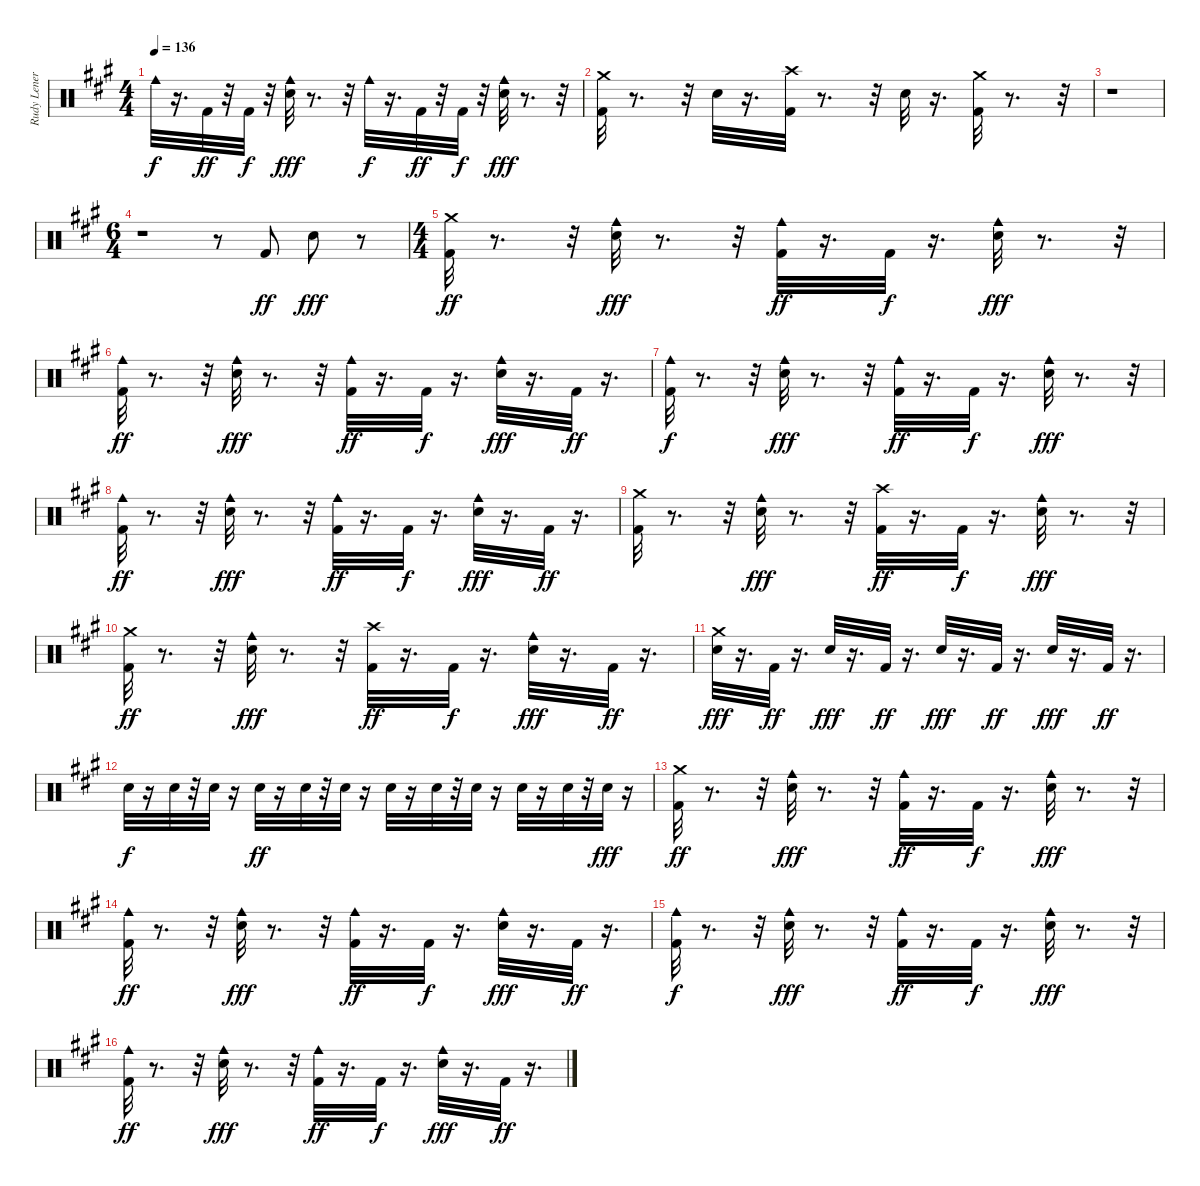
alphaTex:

\track ("Rudy Leners" "Rudy Lener") {instrument percussion}
\staff {score}
\articulation defaults
\ts (4 4)
\tempo 136
\clef neutral
\ks a "Cowbell medium (hit)".32{dy f}
r.16{d} "Kick (hit) 2".32{dy ff} r.32 "Kick (hit) 2".32{dy f} r.32 ("Cowbell medium (hit)" "Snare (hit) 2").32{dy fff} r.8{d} r.32 "Cowbell medium (hit)".32{dy f} r.16{d} "Kick (hit) 2".32{dy ff} r.32 "Kick (hit) 2".32{dy f} r.32 ("Cowbell medium (hit)" "Snare (hit) 2").32{dy fff} r.8{d} r.32 |
("Kick (hit) 2" "Crash medium (hit)").32 r.8{d} r.32 "Snare (hit) 2".32 r.16{d} ("Kick (hit) 2" "Crash high (hit)").32 r.8{d} r.32 "Snare (hit) 2".32 r.16{d} ("Kick (hit) 2" "Crash medium (hit)").32 r.8{d} r.32 |
r.1 |
\ts (6 4)
r.1 r.8 "Kick (hit) 2".8{dy ff} "Snare (hit) 2".8{dy fff} r.8 |
\ts (4 4)
("Crash medium (hit)" "Kick (hit) 2").32{dy ff} r.8{d} r.32 ("Snare (hit) 2" "Cowbell medium (hit)").32{dy fff} r.8{d} r.32 ("Kick (hit) 2" "Cowbell medium (hit)").32{dy ff} r.16{d} "Kick (hit) 2".32{dy f} r.16{d} ("Snare (hit) 2" "Cowbell medium (hit)").32{dy fff} r.8{d} r.32 |
("Cowbell medium (hit)" "Kick (hit) 2").32{dy ff} r.8{d} r.32 ("Cowbell medium (hit)" "Snare (hit) 2").32{dy fff} r.8{d} r.32 ("Cowbell medium (hit)" "Kick (hit) 2").32{dy ff} r.16{d} "Kick (hit) 2".32{dy f} r.16{d} ("Cowbell medium (hit)" "Snare (hit) 2").32{dy fff} r.16{d} "Kick (hit) 2".32{dy ff} r.16{d} |
("Kick (hit) 2" "Cowbell medium (hit)").32{dy f} r.8{d} r.32 ("Snare (hit) 2" "Cowbell medium (hit)").32{dy fff} r.8{d} r.32 ("Kick (hit) 2" "Cowbell medium (hit)").32{dy ff} r.16{d} "Kick (hit) 2".32{dy f} r.16{d} ("Snare (hit) 2" "Cowbell medium (hit)").32{dy fff} r.8{d} r.32 |
("Cowbell medium (hit)" "Kick (hit) 2").32{dy ff} r.8{d} r.32 ("Cowbell medium (hit)" "Snare (hit) 2").32{dy fff} r.8{d} r.32 ("Cowbell medium (hit)" "Kick (hit) 2").32{dy ff} r.16{d} "Kick (hit) 2".32{dy f} r.16{d} ("Cowbell medium (hit)" "Snare (hit) 2").32{dy fff} r.16{d} "Kick (hit) 2".32{dy ff} r.16{d} |
("Crash medium (hit)" "Kick (hit) 2").32 r.8{d} r.32 ("Snare (hit) 2" "Cowbell medium (hit)").32{dy fff} r.8{d} r.32 ("Crash high (hit)" "Kick (hit) 2").32{dy ff} r.16{d} "Kick (hit) 2".32{dy f} r.16{d} ("Snare (hit) 2" "Cowbell medium (hit)").32{dy fff} r.8{d} r.32 |
("Crash medium (hit)" "Kick (hit) 2").32{dy ff} r.8{d} r.32 ("Cowbell medium (hit)" "Snare (hit) 2").32{dy fff} r.8{d} r.32 ("Crash high (hit)" "Kick (hit) 2").32{dy ff} r.16{d} "Kick (hit) 2".32{dy f} r.16{d} ("Cowbell medium (hit)" "Snare (hit) 2").32{dy fff} r.16{d} "Kick (hit) 2".32{dy ff} r.16{d} |
("Crash medium (hit)" "Snare (hit) 2").32{dy fff} r.16{d} "Kick (hit) 2".32{dy ff} r.16{d} "Snare (hit) 2".32{dy fff} r.16{d} "Kick (hit) 2".32{dy ff} r.16{d} "Snare (hit) 2".32{dy fff} r.16{d} "Kick (hit) 2".32{dy ff} r.16{d} "Snare (hit) 2".32{dy fff} r.16{d} "Kick (hit) 2".32{dy ff} r.16{d} |
"Snare (hit) 2".32{dy f} r.16 "Snare (hit) 2".32 r.32 "Snare (hit) 2".32 r.16 "Snare (hit) 2".32{dy ff} r.16 "Snare (hit) 2".32 r.32 "Snare (hit) 2".32 r.16 "Snare (hit) 2".32 r.16 "Snare (hit) 2".32 r.32 "Snare (hit) 2".32 r.16 "Snare (hit) 2".32 r.16 "Snare (hit) 2".32 r.32 "Snare (hit) 2".32{dy fff} r.16 |
("Crash medium (hit)" "Kick (hit) 2").32{dy ff} r.8{d} r.32 ("Snare (hit) 2" "Cowbell medium (hit)").32{dy fff} r.8{d} r.32 ("Kick (hit) 2" "Cowbell medium (hit)").32{dy ff} r.16{d} "Kick (hit) 2".32{dy f} r.16{d} ("Snare (hit) 2" "Cowbell medium (hit)").32{dy fff} r.8{d} r.32 |
("Cowbell medium (hit)" "Kick (hit) 2").32{dy ff} r.8{d} r.32 ("Cowbell medium (hit)" "Snare (hit) 2").32{dy fff} r.8{d} r.32 ("Cowbell medium (hit)" "Kick (hit) 2").32{dy ff} r.16{d} "Kick (hit) 2".32{dy f} r.16{d} ("Cowbell medium (hit)" "Snare (hit) 2").32{dy fff} r.16{d} "Kick (hit) 2".32{dy ff} r.16{d} |
("Kick (hit) 2" "Cowbell medium (hit)").32{dy f} r.8{d} r.32 ("Snare (hit) 2" "Cowbell medium (hit)").32{dy fff} r.8{d} r.32 ("Kick (hit) 2" "Cowbell medium (hit)").32{dy ff} r.16{d} "Kick (hit) 2".32{dy f} r.16{d} ("Snare (hit) 2" "Cowbell medium (hit)").32{dy fff} r.8{d} r.32 |
("Cowbell medium (hit)" "Kick (hit) 2").32{dy ff} r.8{d} r.32 ("Cowbell medium (hit)" "Snare (hit) 2").32{dy fff} r.8{d} r.32 ("Cowbell medium (hit)" "Kick (hit) 2").32{dy ff} r.16{d} "Kick (hit) 2".32{dy f} r.16{d} ("Cowbell medium (hit)" "Snare (hit) 2").32{dy fff} r.16{d} "Kick (hit) 2".32{dy ff} r.16{d}
